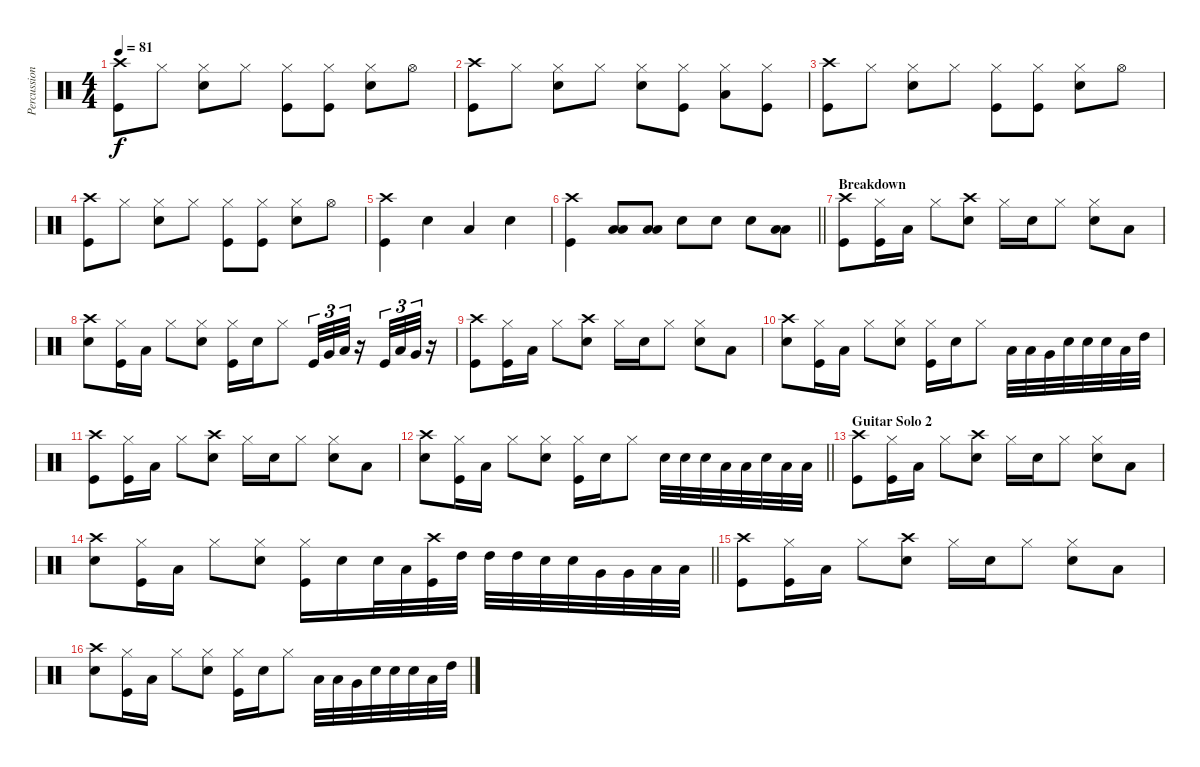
\track ("Percussion" "Percussion") {instrument percussion}
\staff {score}
\articulation defaults
\ts (4 4)
\tempo 81
\clef neutral
\ks c
("Crash high (hit)" "Kick (hit)").8{dy f} "Hi-Hat (closed)".8 ("Hi-Hat (closed)" "Snare (hit) 2").8 "Hi-Hat (closed)".8 ("Hi-Hat (closed)" "Kick (hit)").8 ("Hi-Hat (closed)" "Kick (hit)").8 ("Hi-Hat (closed)" "Snare (hit) 2").8 "Hi-Hat (open)".8 |
("Crash high (hit)" "Kick (hit)").8 "Hi-Hat (closed)".8 ("Hi-Hat (closed)" "Snare (hit) 2").8 "Hi-Hat (closed)".8 ("Hi-Hat (closed)" "Snare (hit) 2").8 ("Hi-Hat (closed)" "Kick (hit)").8 ("Hi-Hat (closed)" "Low Floor Tom (hit)").8 ("Hi-Hat (closed)" "Kick (hit)").8 |
("Crash high (hit)" "Kick (hit)").8 "Hi-Hat (closed)".8 ("Hi-Hat (closed)" "Snare (hit) 2").8 "Hi-Hat (closed)".8 ("Hi-Hat (closed)" "Kick (hit)").8 ("Hi-Hat (closed)" "Kick (hit)").8 ("Hi-Hat (closed)" "Snare (hit) 2").8 "Hi-Hat (open)".8 |
("Crash high (hit)" "Kick (hit)").8 "Hi-Hat (closed)".8 ("Hi-Hat (closed)" "Snare (hit) 2").8 "Hi-Hat (closed)".8 ("Hi-Hat (closed)" "Kick (hit)").8 ("Hi-Hat (closed)" "Kick (hit)").8 ("Hi-Hat (closed)" "Snare (hit) 2").8 "Hi-Hat (open)".8 |
("Crash high (hit)" "Kick (hit)").4 "Snare (hit) 2".4 "Low Floor Tom (hit)".4 "Snare (hit) 2".4 |
\barLineRight lightlight
("Crash high (hit)" "Kick (hit)").4 ("Low Tom (hit)" "Low Floor Tom (hit)").8 ("Low Tom (hit)" "Low Floor Tom (hit)").8 "Snare (hit) 2".8 "Snare (hit) 2".8 "Snare (hit) 2".8 ("Low Tom (hit)" "Low Floor Tom (hit)").8 |
\section ("" "Breakdown")
("Crash high (hit)" "Kick (hit)").8 ("Hi-Hat (closed)" "Kick (hit)").16 "Low Tom (hit)".16 "Hi-Hat (closed)".8 ("Crash high (hit)" "Snare (hit) 2").8 "Hi-Hat (closed)".16 "Snare (hit) 2".16 "Hi-Hat (closed)".8 ("Hi-Hat (closed)" "Snare (hit) 2").8 "Low Tom (hit)".8 |
("Crash high (hit)" "Snare (hit) 2").8 ("Hi-Hat (closed)" "Kick (hit)").16 "Low Tom (hit)".16 "Hi-Hat (closed)".8 ("Hi-Hat (closed)" "Snare (hit) 2").8 ("Hi-Hat (closed)" "Kick (hit)").16 "Snare (hit) 2".16 "Hi-Hat (closed)".8 "Kick (hit)".32{tu (3 2)} "Very Low Tom (hit)".32{tu (3 2)} "Low Tom (hit)".32{tu (3 2)} r.16 "Kick (hit)".32{tu (3 2)} "Low Tom (hit)".32{tu (3 2)} "Very Low Tom (hit)".32{tu (3 2)} r.16 |
("Crash high (hit)" "Kick (hit)").8 ("Hi-Hat (closed)" "Kick (hit)").16 "Low Tom (hit)".16 "Hi-Hat (closed)".8 ("Crash high (hit)" "Snare (hit) 2").8 "Hi-Hat (closed)".16 "Snare (hit) 2".16 "Hi-Hat (closed)".8 ("Hi-Hat (closed)" "Snare (hit) 2").8 "Low Tom (hit)".8 |
("Crash high (hit)" "Snare (hit) 2").8 ("Hi-Hat (closed)" "Kick (hit)").16 "Low Tom (hit)".16 "Hi-Hat (closed)".8 ("Hi-Hat (closed)" "Snare (hit) 2").8 ("Hi-Hat (closed)" "Kick (hit)").16 "Snare (hit) 2".16 "Hi-Hat (closed)".8 "Low Tom (hit)".32 "Low Tom (hit)".32 "Very Low Tom (hit)".32 "Snare (hit) 2".32 "Snare (hit) 2".32 "Snare (hit) 2".32 "Low Tom (hit)".32 "High Tom (hit)".32 |
("Crash high (hit)" "Kick (hit)").8 ("Hi-Hat (closed)" "Kick (hit)").16 "Low Tom (hit)".16 "Hi-Hat (closed)".8 ("Crash high (hit)" "Snare (hit) 2").8 "Hi-Hat (closed)".16 "Snare (hit) 2".16 "Hi-Hat (closed)".8 ("Hi-Hat (closed)" "Snare (hit) 2").8 "Low Tom (hit)".8 |
\barLineRight lightlight
("Crash high (hit)" "Snare (hit) 2").8 ("Hi-Hat (closed)" "Kick (hit)").16 "Low Tom (hit)".16 "Hi-Hat (closed)".8 ("Hi-Hat (closed)" "Snare (hit) 2").8 ("Hi-Hat (closed)" "Kick (hit)").16 "Snare (hit) 2".16 "Hi-Hat (closed)".8 "Snare (hit) 2".32 "Snare (hit) 2".32 "Snare (hit) 2".32 "Low Tom (hit)".32 "Low Tom (hit)".32 "Snare (hit) 2".32 "Low Floor Tom (hit)".32 "Low Floor Tom (hit)".32 |
\section ("" "Guitar Solo 2")
("Crash high (hit)" "Kick (hit)").8 ("Hi-Hat (closed)" "Kick (hit)").16 "Low Tom (hit)".16 "Hi-Hat (closed)".8 ("Crash high (hit)" "Snare (hit) 2").8 "Hi-Hat (closed)".16 "Snare (hit) 2".16 "Hi-Hat (closed)".8 ("Hi-Hat (closed)" "Snare (hit) 2").8 "Low Tom (hit)".8 |
\barLineRight lightlight
("Crash high (hit)" "Snare (hit) 2").8 ("Hi-Hat (closed)" "Kick (hit)").16 "Low Tom (hit)".16 "Hi-Hat (closed)".8 ("Hi-Hat (closed)" "Snare (hit) 2").8 ("Hi-Hat (closed)" "Kick (hit)").16 "Snare (hit) 2".16 "Snare (hit) 2".32 "Low Tom (hit)".32 ("Crash high (hit)" "Kick (hit)").32 "High Tom (hit)".32 "High Tom (hit)".32 "High Tom (hit)".32 "Snare (hit) 2".32 "Snare (hit) 2".32 "Very Low Tom (hit)".32 "Very Low Tom (hit)".32 "Low Floor Tom (hit)".32 "Low Floor Tom (hit)".32 |
("Crash high (hit)" "Kick (hit)").8 ("Hi-Hat (closed)" "Kick (hit)").16 "Low Tom (hit)".16 "Hi-Hat (closed)".8 ("Crash high (hit)" "Snare (hit) 2").8 "Hi-Hat (closed)".16 "Snare (hit) 2".16 "Hi-Hat (closed)".8 ("Hi-Hat (closed)" "Snare (hit) 2").8 "Low Tom (hit)".8 |
("Crash high (hit)" "Snare (hit) 2").8 ("Hi-Hat (closed)" "Kick (hit)").16 "Low Tom (hit)".16 "Hi-Hat (closed)".8 ("Hi-Hat (closed)" "Snare (hit) 2").8 ("Hi-Hat (closed)" "Kick (hit)").16 "Snare (hit) 2".16 "Hi-Hat (closed)".8 "Low Tom (hit)".32 "Low Tom (hit)".32 "Very Low Tom (hit)".32 "Snare (hit) 2".32 "Snare (hit) 2".32 "Snare (hit) 2".32 "Low Tom (hit)".32 "High Tom (hit)".32
